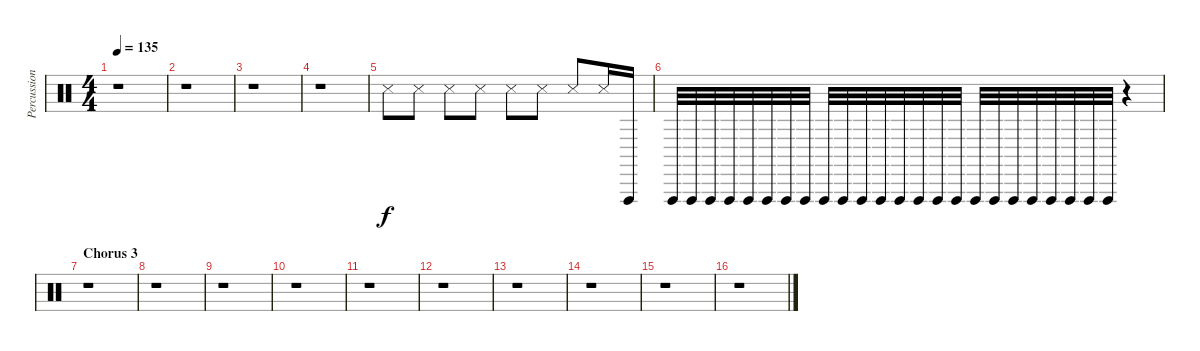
\track ("Percussion" "Percussion") {instrument percussion}
\staff {score}
\articulation defaults
\ts (4 4)
\tempo 135
\clef neutral
\ks c
r.1{dy mp} |
r.1 |
r.1 |
r.1 |
"Metronome (hit)".8{dy f} "Metronome (hit)".8 "Metronome (hit)".8 "Metronome (hit)".8 "Metronome (hit)".8 "Metronome (hit)".8 "Metronome (hit)".8 "Metronome (hit)".16 "Vibraslap (hit)".16 |
"Vibraslap (hit)".32 "Vibraslap (hit)".32 "Vibraslap (hit)".32 "Vibraslap (hit)".32 "Vibraslap (hit)".32 "Vibraslap (hit)".32 "Vibraslap (hit)".32 "Vibraslap (hit)".32 "Vibraslap (hit)".32 "Vibraslap (hit)".32 "Vibraslap (hit)".32 "Vibraslap (hit)".32 "Vibraslap (hit)".32 "Vibraslap (hit)".32 "Vibraslap (hit)".32 "Vibraslap (hit)".32 "Vibraslap (hit)".32 "Vibraslap (hit)".32 "Vibraslap (hit)".32 "Vibraslap (hit)".32 "Vibraslap (hit)".32 "Vibraslap (hit)".32 "Vibraslap (hit)".32 "Vibraslap (hit)".32 r.4 |
\section ("" "Chorus 3")
r.1 |
r.1 |
r.1 |
r.1 |
r.1 |
r.1 |
r.1 |
r.1 |
r.1 |
r.1
